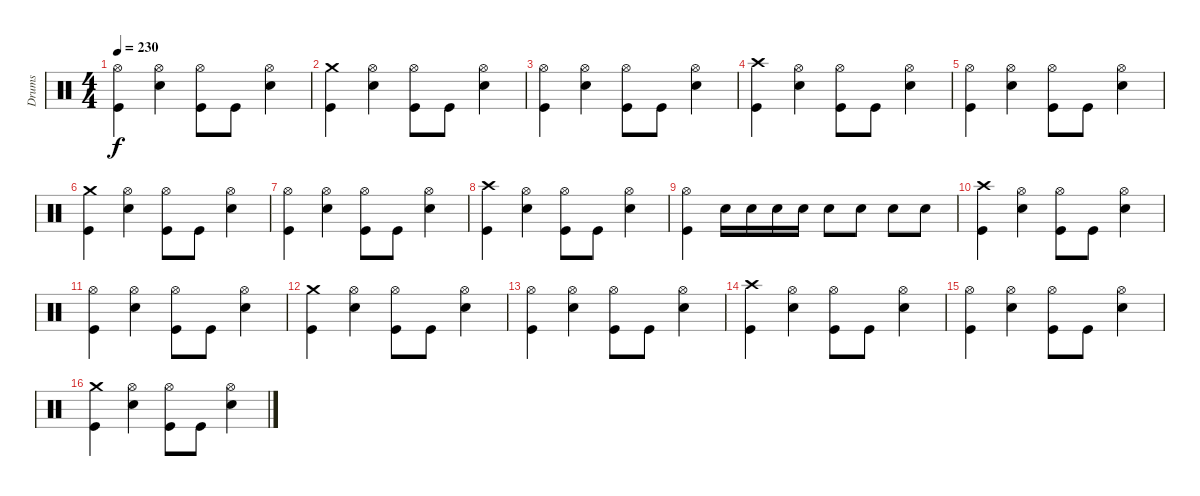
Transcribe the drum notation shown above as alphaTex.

\track ("Drums" "Drums") {instrument percussion}
\staff {score}
\articulation defaults
\ts (4 4)
\tempo 230
\clef neutral
\ks c
("Hi-Hat (open)" "Kick (hit)").4{dy f} ("Hi-Hat (open)" "Snare (hit) 2").4 ("Hi-Hat (open)" "Kick (hit)").8 "Kick (hit)".8 ("Hi-Hat (open)" "Snare (hit) 2").4 |
("Crash medium (hit)" "Kick (hit)").4 ("Hi-Hat (open)" "Snare (hit) 2").4 ("Hi-Hat (open)" "Kick (hit)").8 "Kick (hit)".8 ("Hi-Hat (open)" "Snare (hit) 2").4 |
("Hi-Hat (open)" "Kick (hit)").4 ("Hi-Hat (open)" "Snare (hit) 2").4 ("Hi-Hat (open)" "Kick (hit)").8 "Kick (hit)".8 ("Hi-Hat (open)" "Snare (hit) 2").4 |
("Crash high (hit)" "Kick (hit)").4 ("Hi-Hat (open)" "Snare (hit) 2").4 ("Hi-Hat (open)" "Kick (hit)").8 "Kick (hit)".8 ("Hi-Hat (open)" "Snare (hit) 2").4 |
("Hi-Hat (open)" "Kick (hit)").4 ("Hi-Hat (open)" "Snare (hit) 2").4 ("Hi-Hat (open)" "Kick (hit)").8 "Kick (hit)".8 ("Hi-Hat (open)" "Snare (hit) 2").4 |
("Crash medium (hit)" "Kick (hit)").4 ("Hi-Hat (open)" "Snare (hit) 2").4 ("Hi-Hat (open)" "Kick (hit)").8 "Kick (hit)".8 ("Hi-Hat (open)" "Snare (hit) 2").4 |
("Hi-Hat (open)" "Kick (hit)").4 ("Hi-Hat (open)" "Snare (hit) 2").4 ("Hi-Hat (open)" "Kick (hit)").8 "Kick (hit)".8 ("Hi-Hat (open)" "Snare (hit) 2").4 |
("Crash high (hit)" "Kick (hit)").4 ("Hi-Hat (open)" "Snare (hit) 2").4 ("Hi-Hat (open)" "Kick (hit)").8 "Kick (hit)".8 ("Hi-Hat (open)" "Snare (hit) 2").4 |
("Hi-Hat (open)" "Kick (hit)").4 "Snare (hit) 2".16 "Snare (hit) 2".16 "Snare (hit) 2".16 "Snare (hit) 2".16 "Snare (hit) 2".8 "Snare (hit) 2".8 "Snare (hit) 2".8 "Snare (hit) 2".8 |
("Crash high (hit)" "Kick (hit)").4 ("Hi-Hat (open)" "Snare (hit) 2").4 ("Hi-Hat (open)" "Kick (hit)").8 "Kick (hit)".8 ("Hi-Hat (open)" "Snare (hit) 2").4 |
("Hi-Hat (open)" "Kick (hit)").4 ("Hi-Hat (open)" "Snare (hit) 2").4 ("Hi-Hat (open)" "Kick (hit)").8 "Kick (hit)".8 ("Hi-Hat (open)" "Snare (hit) 2").4 |
("Crash medium (hit)" "Kick (hit)").4 ("Hi-Hat (open)" "Snare (hit) 2").4 ("Hi-Hat (open)" "Kick (hit)").8 "Kick (hit)".8 ("Hi-Hat (open)" "Snare (hit) 2").4 |
("Hi-Hat (open)" "Kick (hit)").4 ("Hi-Hat (open)" "Snare (hit) 2").4 ("Hi-Hat (open)" "Kick (hit)").8 "Kick (hit)".8 ("Hi-Hat (open)" "Snare (hit) 2").4 |
("Crash high (hit)" "Kick (hit)").4 ("Hi-Hat (open)" "Snare (hit) 2").4 ("Hi-Hat (open)" "Kick (hit)").8 "Kick (hit)".8 ("Hi-Hat (open)" "Snare (hit) 2").4 |
("Hi-Hat (open)" "Kick (hit)").4 ("Hi-Hat (open)" "Snare (hit) 2").4 ("Hi-Hat (open)" "Kick (hit)").8 "Kick (hit)".8 ("Hi-Hat (open)" "Snare (hit) 2").4 |
("Crash medium (hit)" "Kick (hit)").4 ("Hi-Hat (open)" "Snare (hit) 2").4 ("Hi-Hat (open)" "Kick (hit)").8 "Kick (hit)".8 ("Hi-Hat (open)" "Snare (hit) 2").4
